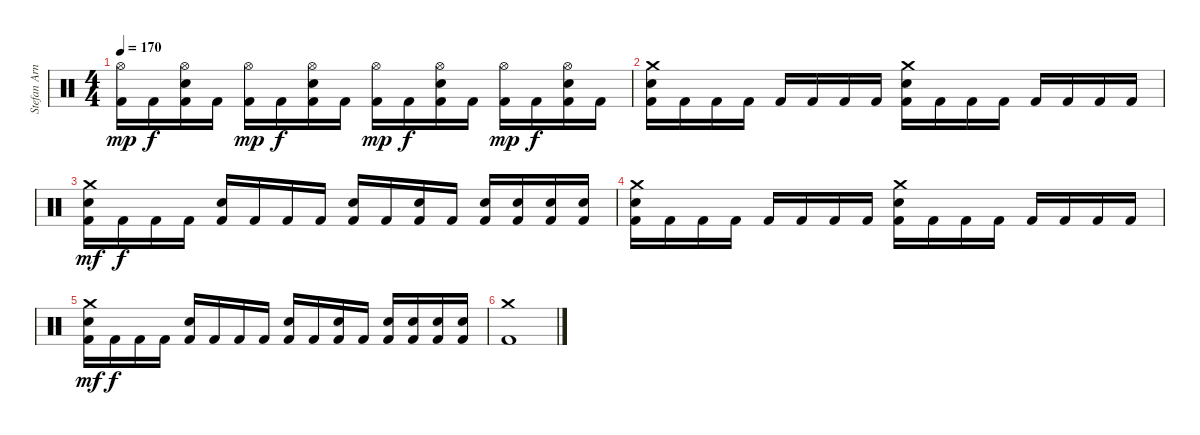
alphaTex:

\track ("Stefan Arnold" "Stefan Arn") {instrument percussion}
\staff {score}
\articulation defaults
\ts (4 4)
\tempo 170
\clef neutral
\ks c
("Hi-Hat (open)" "Kick (hit) 2").16{dy mp} "Kick (hit) 2".16{dy f} ("Hi-Hat (open)" "Electric Snare (hit)" "Kick (hit) 2").16 "Kick (hit) 2".16 ("Hi-Hat (open)" "Kick (hit) 2").16{dy mp} "Kick (hit) 2".16{dy f} ("Hi-Hat (open)" "Electric Snare (hit)" "Kick (hit) 2").16 "Kick (hit) 2".16 ("Hi-Hat (open)" "Kick (hit) 2").16{dy mp} "Kick (hit) 2".16{dy f} ("Hi-Hat (open)" "Electric Snare (hit)" "Kick (hit) 2").16 "Kick (hit) 2".16 ("Hi-Hat (open)" "Kick (hit) 2").16{dy mp} "Kick (hit) 2".16{dy f} ("Hi-Hat (open)" "Electric Snare (hit)" "Kick (hit) 2").16 "Kick (hit) 2".16 |
("Crash medium (hit)" "Electric Snare (hit)" "Kick (hit) 2").16 "Kick (hit) 2".16 "Kick (hit) 2".16 "Kick (hit) 2".16 "Kick (hit) 2".16 "Kick (hit) 2".16 "Kick (hit) 2".16 "Kick (hit) 2".16 ("Crash medium (hit)" "Electric Snare (hit)" "Kick (hit) 2").16 "Kick (hit) 2".16 "Kick (hit) 2".16 "Kick (hit) 2".16 "Kick (hit) 2".16 "Kick (hit) 2".16 "Kick (hit) 2".16 "Kick (hit) 2".16 |
("Crash medium (hit)" "Electric Snare (hit)" "Kick (hit) 2").16{dy mf} "Kick (hit) 2".16{dy f} "Kick (hit) 2".16 "Kick (hit) 2".16 ("Electric Snare (hit)" "Kick (hit) 2").16 "Kick (hit) 2".16 "Kick (hit) 2".16 "Kick (hit) 2".16 ("Electric Snare (hit)" "Kick (hit) 2").16 "Kick (hit) 2".16 ("Electric Snare (hit)" "Kick (hit) 2").16 "Kick (hit) 2".16 ("Electric Snare (hit)" "Kick (hit) 2").16 ("Electric Snare (hit)" "Kick (hit) 2").16 ("Electric Snare (hit)" "Kick (hit) 2").16 ("Electric Snare (hit)" "Kick (hit) 2").16 |
("Crash medium (hit)" "Electric Snare (hit)" "Kick (hit) 2").16 "Kick (hit) 2".16 "Kick (hit) 2".16 "Kick (hit) 2".16 "Kick (hit) 2".16 "Kick (hit) 2".16 "Kick (hit) 2".16 "Kick (hit) 2".16 ("Crash medium (hit)" "Electric Snare (hit)" "Kick (hit) 2").16 "Kick (hit) 2".16 "Kick (hit) 2".16 "Kick (hit) 2".16 "Kick (hit) 2".16 "Kick (hit) 2".16 "Kick (hit) 2".16 "Kick (hit) 2".16 |
("Crash medium (hit)" "Electric Snare (hit)" "Kick (hit) 2").16{dy mf} "Kick (hit) 2".16{dy f} "Kick (hit) 2".16 "Kick (hit) 2".16 ("Electric Snare (hit)" "Kick (hit) 2").16 "Kick (hit) 2".16 "Kick (hit) 2".16 "Kick (hit) 2".16 ("Electric Snare (hit)" "Kick (hit) 2").16 "Kick (hit) 2".16 ("Electric Snare (hit)" "Kick (hit) 2").16 "Kick (hit) 2".16 ("Electric Snare (hit)" "Kick (hit) 2").16 ("Electric Snare (hit)" "Kick (hit) 2").16 ("Electric Snare (hit)" "Kick (hit) 2").16 ("Electric Snare (hit)" "Kick (hit) 2").16 |
("Crash medium (hit)" "Kick (hit) 2").1
